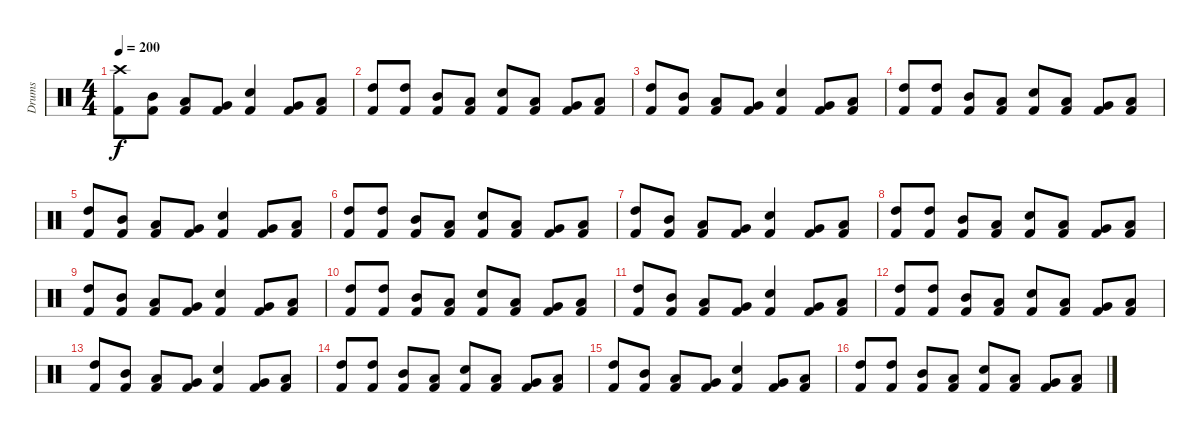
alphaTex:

\track ("Drums" "Drums") {instrument percussion}
\staff {score}
\articulation defaults
\ts (4 4)
\section ("" "")
\tempo 200
\clef neutral
\ks c
("Kick (hit) 2" "Crash high (hit)").8{dy f} ("Kick (hit) 2" "Mid Tom (hit)").8 ("Kick (hit) 2" "Low Tom (hit)").8 ("Kick (hit) 2" "Very Low Tom (hit)").8 ("Kick (hit) 2" "Snare (hit) 2").4 ("Kick (hit) 2" "Very Low Tom (hit)").8 ("Kick (hit) 2" "Low Floor Tom (hit)").8 |
("Kick (hit) 2" "High Tom (hit)").8 ("Kick (hit) 2" "High Tom (hit)").8 ("Kick (hit) 2" "Mid Tom (hit)").8 ("Kick (hit) 2" "Low Tom (hit)").8 ("Kick (hit) 2" "Snare (hit) 2").8 ("Kick (hit) 2" "Low Tom (hit)").8 ("Kick (hit) 2" "Very Low Tom (hit)").8 ("Kick (hit) 2" "Low Floor Tom (hit)").8 |
("Kick (hit) 2" "High Tom (hit)").8 ("Kick (hit) 2" "Mid Tom (hit)").8 ("Kick (hit) 2" "Low Tom (hit)").8 ("Kick (hit) 2" "Very Low Tom (hit)").8 ("Kick (hit) 2" "Snare (hit) 2").4 ("Kick (hit) 2" "Very Low Tom (hit)").8 ("Kick (hit) 2" "Low Floor Tom (hit)").8 |
("Kick (hit) 2" "High Tom (hit)").8 ("Kick (hit) 2" "High Tom (hit)").8 ("Kick (hit) 2" "Mid Tom (hit)").8 ("Kick (hit) 2" "Low Tom (hit)").8 ("Kick (hit) 2" "Snare (hit) 2").8 ("Kick (hit) 2" "Low Tom (hit)").8 ("Kick (hit) 2" "Very Low Tom (hit)").8 ("Kick (hit) 2" "Low Floor Tom (hit)").8 |
("Kick (hit) 2" "High Tom (hit)").8 ("Kick (hit) 2" "Mid Tom (hit)").8 ("Kick (hit) 2" "Low Tom (hit)").8 ("Kick (hit) 2" "Very Low Tom (hit)").8 ("Kick (hit) 2" "Snare (hit) 2").4 ("Kick (hit) 2" "Very Low Tom (hit)").8 ("Kick (hit) 2" "Low Floor Tom (hit)").8 |
("Kick (hit) 2" "High Tom (hit)").8 ("Kick (hit) 2" "High Tom (hit)").8 ("Kick (hit) 2" "Mid Tom (hit)").8 ("Kick (hit) 2" "Low Tom (hit)").8 ("Kick (hit) 2" "Snare (hit) 2").8 ("Kick (hit) 2" "Low Tom (hit)").8 ("Kick (hit) 2" "Very Low Tom (hit)").8 ("Kick (hit) 2" "Low Floor Tom (hit)").8 |
("Kick (hit) 2" "High Tom (hit)").8 ("Kick (hit) 2" "Mid Tom (hit)").8 ("Kick (hit) 2" "Low Tom (hit)").8 ("Kick (hit) 2" "Very Low Tom (hit)").8 ("Kick (hit) 2" "Snare (hit) 2").4 ("Kick (hit) 2" "Very Low Tom (hit)").8 ("Kick (hit) 2" "Low Floor Tom (hit)").8 |
("Kick (hit) 2" "High Tom (hit)").8 ("Kick (hit) 2" "High Tom (hit)").8 ("Kick (hit) 2" "Mid Tom (hit)").8 ("Kick (hit) 2" "Low Tom (hit)").8 ("Kick (hit) 2" "Snare (hit) 2").8 ("Kick (hit) 2" "Low Tom (hit)").8 ("Kick (hit) 2" "Very Low Tom (hit)").8 ("Kick (hit) 2" "Low Floor Tom (hit)").8 |
\section ("" "")
("Kick (hit) 2" "High Tom (hit)").8 ("Kick (hit) 2" "Mid Tom (hit)").8 ("Kick (hit) 2" "Low Tom (hit)").8 ("Kick (hit) 2" "Very Low Tom (hit)").8 ("Kick (hit) 2" "Snare (hit) 2").4 ("Kick (hit) 2" "Very Low Tom (hit)").8 ("Kick (hit) 2" "Low Floor Tom (hit)").8 |
("Kick (hit) 2" "High Tom (hit)").8 ("Kick (hit) 2" "High Tom (hit)").8 ("Kick (hit) 2" "Mid Tom (hit)").8 ("Kick (hit) 2" "Low Tom (hit)").8 ("Kick (hit) 2" "Snare (hit) 2").8 ("Kick (hit) 2" "Low Tom (hit)").8 ("Kick (hit) 2" "Very Low Tom (hit)").8 ("Kick (hit) 2" "Low Floor Tom (hit)").8 |
("Kick (hit) 2" "High Tom (hit)").8 ("Kick (hit) 2" "Mid Tom (hit)").8 ("Kick (hit) 2" "Low Tom (hit)").8 ("Kick (hit) 2" "Very Low Tom (hit)").8 ("Kick (hit) 2" "Snare (hit) 2").4 ("Kick (hit) 2" "Very Low Tom (hit)").8 ("Kick (hit) 2" "Low Floor Tom (hit)").8 |
("Kick (hit) 2" "High Tom (hit)").8 ("Kick (hit) 2" "High Tom (hit)").8 ("Kick (hit) 2" "Mid Tom (hit)").8 ("Kick (hit) 2" "Low Tom (hit)").8 ("Kick (hit) 2" "Snare (hit) 2").8 ("Kick (hit) 2" "Low Tom (hit)").8 ("Kick (hit) 2" "Very Low Tom (hit)").8 ("Kick (hit) 2" "Low Floor Tom (hit)").8 |
("Kick (hit) 2" "High Tom (hit)").8 ("Kick (hit) 2" "Mid Tom (hit)").8 ("Kick (hit) 2" "Low Tom (hit)").8 ("Kick (hit) 2" "Very Low Tom (hit)").8 ("Kick (hit) 2" "Snare (hit) 2").4 ("Kick (hit) 2" "Very Low Tom (hit)").8 ("Kick (hit) 2" "Low Floor Tom (hit)").8 |
("Kick (hit) 2" "High Tom (hit)").8 ("Kick (hit) 2" "High Tom (hit)").8 ("Kick (hit) 2" "Mid Tom (hit)").8 ("Kick (hit) 2" "Low Tom (hit)").8 ("Kick (hit) 2" "Snare (hit) 2").8 ("Kick (hit) 2" "Low Tom (hit)").8 ("Kick (hit) 2" "Very Low Tom (hit)").8 ("Kick (hit) 2" "Low Floor Tom (hit)").8 |
("Kick (hit) 2" "High Tom (hit)").8 ("Kick (hit) 2" "Mid Tom (hit)").8 ("Kick (hit) 2" "Low Tom (hit)").8 ("Kick (hit) 2" "Very Low Tom (hit)").8 ("Kick (hit) 2" "Snare (hit) 2").4 ("Kick (hit) 2" "Very Low Tom (hit)").8 ("Kick (hit) 2" "Low Floor Tom (hit)").8 |
("Kick (hit) 2" "High Tom (hit)").8 ("Kick (hit) 2" "High Tom (hit)").8 ("Kick (hit) 2" "Mid Tom (hit)").8 ("Kick (hit) 2" "Low Tom (hit)").8 ("Kick (hit) 2" "Snare (hit) 2").8 ("Kick (hit) 2" "Low Tom (hit)").8 ("Kick (hit) 2" "Very Low Tom (hit)").8 ("Kick (hit) 2" "Low Floor Tom (hit)").8
